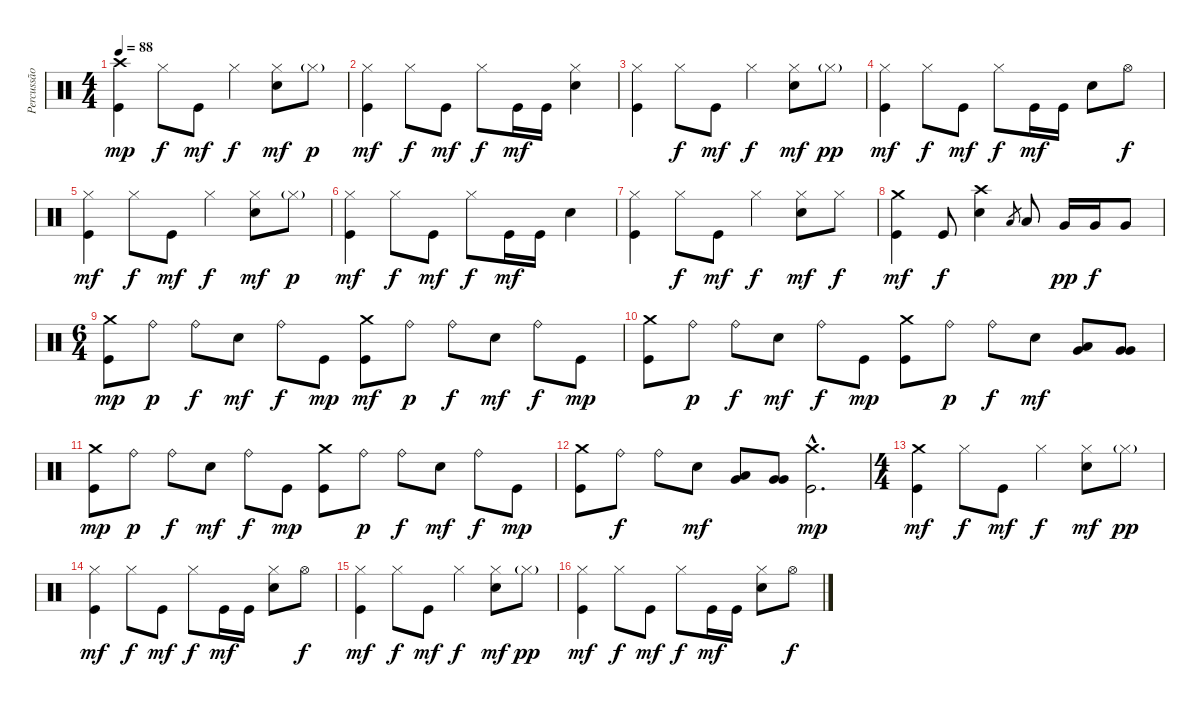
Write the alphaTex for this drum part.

\track ("Percussão" "Percussão") {instrument percussion}
\staff {score}
\articulation defaults
\ts (4 4)
\tempo 88
\clef neutral
\ks c
("Kick (hit)" "Crash high (hit)").4{dy mp} "Hi-Hat (closed)".8{dy f} "Kick (hit)".8{dy mf} "Hi-Hat (closed)".4{dy f} ("Electric Snare (hit)" "Hi-Hat (closed)").8{dy mf} "Hi-Hat (closed)"{g}.8{dy p} |
("Kick (hit)" "Hi-Hat (closed)").4{dy mf} "Hi-Hat (closed)".8{dy f} "Kick (hit)".8{dy mf} "Hi-Hat (closed)".8{dy f} "Kick (hit)".16{dy mf} "Kick (hit)".16 ("Electric Snare (hit)" "Hi-Hat (closed)").4 |
("Kick (hit)" "Hi-Hat (closed)").4 "Hi-Hat (closed)".8{dy f} "Kick (hit)".8{dy mf} "Hi-Hat (closed)".4{dy f} ("Electric Snare (hit)" "Hi-Hat (closed)").8{dy mf} "Hi-Hat (closed)"{g}.8{dy pp} |
("Kick (hit)" "Hi-Hat (closed)").4{dy mf} "Hi-Hat (closed)".8{dy f} "Kick (hit)".8{dy mf} "Hi-Hat (closed)".8{dy f} "Kick (hit)".16{dy mf} "Kick (hit)".16 "Electric Snare (hit)".8 "Hi-Hat (open)".8{dy f} |
("Kick (hit)" "Hi-Hat (closed)").4{dy mf} "Hi-Hat (closed)".8{dy f} "Kick (hit)".8{dy mf} "Hi-Hat (closed)".4{dy f} ("Electric Snare (hit)" "Hi-Hat (closed)").8{dy mf} "Hi-Hat (closed)"{g}.8{dy p} |
("Kick (hit)" "Hi-Hat (closed)").4{dy mf} "Hi-Hat (closed)".8{dy f} "Kick (hit)".8{dy mf} "Hi-Hat (closed)".8{dy f} "Kick (hit)".16{dy mf} "Kick (hit)".16 "Electric Snare (hit)".4 |
("Kick (hit)" "Hi-Hat (closed)").4 "Hi-Hat (closed)".8{dy f} "Kick (hit)".8{dy mf} "Hi-Hat (closed)".4{dy f} ("Electric Snare (hit)" "Hi-Hat (closed)").8{dy mf} "Hi-Hat (closed)".8{dy f} |
("Kick (hit)" "Crash medium (hit)").4{dy mf} "Kick (hit)".8{dy f} ("Crash high (hit)" "Electric Snare (hit)").4 "Low Tom (hit)".8{gr} "Low Tom (hit)".8 "Very Low Tom (hit)".16{dy pp} "Very Low Tom (hit)".16{dy f} "Very Low Tom (hit)".8 |
\ts (6 4)
("Kick (hit)" "Crash medium (hit)").8{dy mp} "Ride (bell)".8{dy p} "Ride (bell)".8{dy f} "Electric Snare (hit)".8{dy mf} "Ride (bell)".8{dy f} "Kick (hit)".8{dy mp} ("Crash medium (hit)" "Kick (hit)").8{dy mf} "Ride (bell)".8{dy p} "Ride (bell)".8{dy f} "Electric Snare (hit)".8{dy mf} "Ride (bell)".8{dy f} "Kick (hit)".8{dy mp} |
("Kick (hit)" "Crash medium (hit)").8 "Ride (bell)".8{dy p} "Ride (bell)".8{dy f} "Electric Snare (hit)".8{dy mf} "Ride (bell)".8{dy f} "Kick (hit)".8{dy mp} ("Crash medium (hit)" "Kick (hit)").8 "Ride (bell)".8{dy p} "Ride (bell)".8{dy f} "Electric Snare (hit)".8{dy mf} ("Very Low Tom (hit)" "Low Tom (hit)").8 ("Very Low Tom (hit)" "Very Low Tom (hit)").8 |
("Kick (hit)" "Crash medium (hit)").8{dy mp} "Ride (bell)".8{dy p} "Ride (bell)".8{dy f} "Electric Snare (hit)".8{dy mf} "Ride (bell)".8{dy f} "Kick (hit)".8{dy mp} ("Crash medium (hit)" "Kick (hit)").8 "Ride (bell)".8{dy p} "Ride (bell)".8{dy f} "Electric Snare (hit)".8{dy mf} "Ride (bell)".8{dy f} "Kick (hit)".8{dy mp} |
("Kick (hit)" "Crash medium (hit)").8 "Ride (bell)".8{dy f} "Ride (bell)".8 "Electric Snare (hit)".8{dy mf} ("Very Low Tom (hit)" "Low Tom (hit)").8 ("Very Low Tom (hit)" "Very Low Tom (hit)").8 ("Crash medium (hit)"{hac} "Kick (hit)"{hac}).2{d dy mp} |
\ts (4 4)
("Kick (hit)" "Crash medium (hit)").4{dy mf} "Hi-Hat (closed)".8{dy f} "Kick (hit)".8{dy mf} "Hi-Hat (closed)".4{dy f} ("Electric Snare (hit)" "Hi-Hat (closed)").8{dy mf} "Hi-Hat (closed)"{g}.8{dy pp} |
("Kick (hit)" "Hi-Hat (closed)").4{dy mf} "Hi-Hat (closed)".8{dy f} "Kick (hit)".8{dy mf} "Hi-Hat (closed)".8{dy f} "Kick (hit)".16{dy mf} "Kick (hit)".16 ("Electric Snare (hit)" "Hi-Hat (closed)").8 "Hi-Hat (open)".8{dy f} |
("Kick (hit)" "Hi-Hat (closed)").4{dy mf} "Hi-Hat (closed)".8{dy f} "Kick (hit)".8{dy mf} "Hi-Hat (closed)".4{dy f} ("Electric Snare (hit)" "Hi-Hat (closed)").8{dy mf} "Hi-Hat (closed)"{g}.8{dy pp} |
("Kick (hit)" "Hi-Hat (closed)").4{dy mf} "Hi-Hat (closed)".8{dy f} "Kick (hit)".8{dy mf} "Hi-Hat (closed)".8{dy f} "Kick (hit)".16{dy mf} "Kick (hit)".16 ("Electric Snare (hit)" "Hi-Hat (closed)").8 "Hi-Hat (open)".8{dy f}
